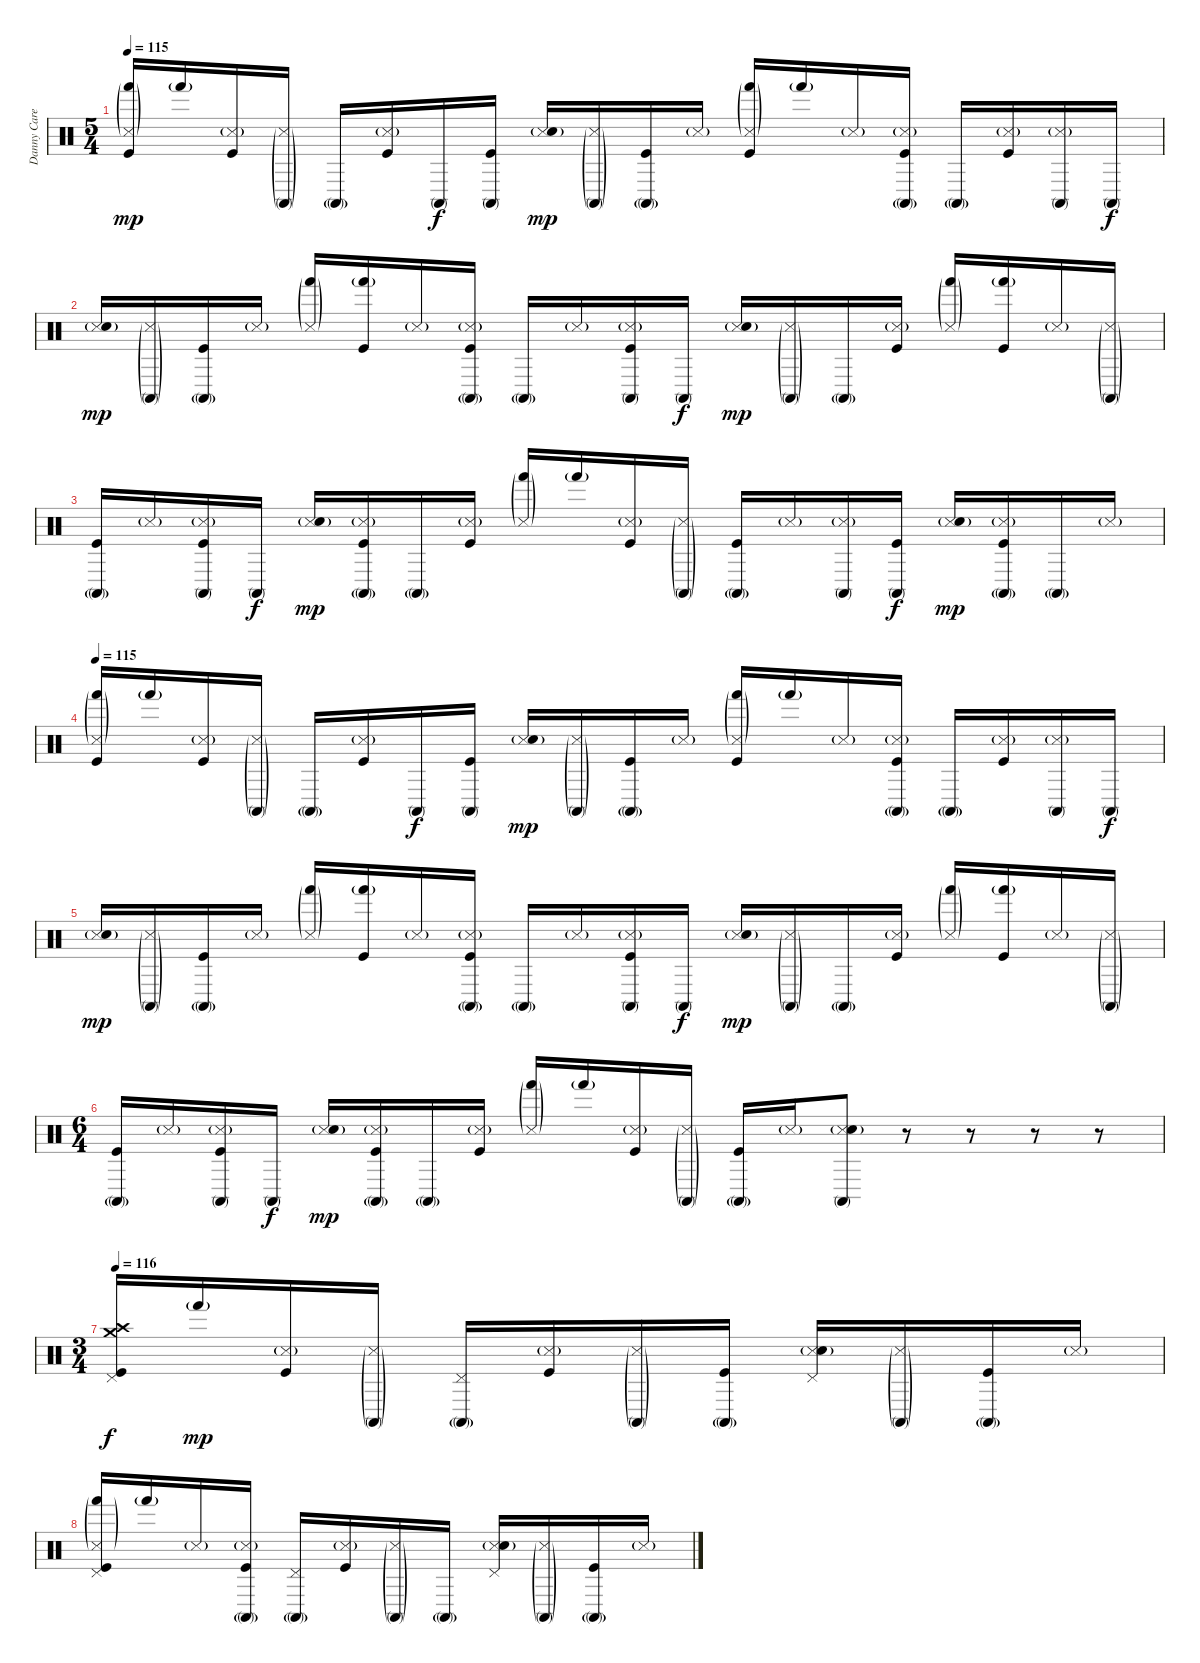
\track ("Danny Carey (drum)" "Danny Care") {instrument percussion}
\staff {score}
\articulation defaults
\ts (5 4)
\tempo 115
\clef neutral
\ks c
("Hand (hit)"{g} "Snare (side stick) 3"{g} "Kick (hit)").16{dy mp} "Hand (hit)"{g}.16 ("Snare (side stick) 3"{g} "Kick (hit)").16 ("Conga high (mute)"{g} "Snare (side stick) 3"{g}).16 "Conga high (mute)"{g}.16 ("Snare (side stick) 3"{g} "Kick (hit)").16 "Conga high (mute)".16{dy f} ("Conga high (mute)" "Kick (hit)").16 ("Snare (side stick) 3"{g} "Snare (hit) 2").16{dy mp} ("Conga high (mute)"{g} "Snare (side stick) 3"{g}).16 ("Conga high (mute)"{g} "Kick (hit)").16 "Snare (side stick) 3"{g}.16 ("Hand (hit)"{g} "Snare (side stick) 3"{g} "Kick (hit)").16 "Hand (hit)"{g}.16 "Snare (side stick) 3"{g}.16 ("Conga high (mute)"{g} "Snare (side stick) 3"{g} "Kick (hit)").16 "Conga high (mute)"{g}.16 ("Snare (side stick) 3"{g} "Kick (hit)").16 ("Conga high (mute)" "Snare (side stick) 3"{g}).16 "Conga high (mute)".16{dy f} |
("Snare (side stick) 3"{g} "Snare (hit) 2").16{dy mp} ("Conga high (mute)"{g} "Snare (side stick) 3"{g}).16 ("Conga high (mute)"{g} "Kick (hit)").16 "Snare (side stick) 3"{g}.16 ("Hand (hit)"{g} "Snare (side stick) 3"{g}).16 ("Hand (hit)"{g} "Kick (hit)").16 "Snare (side stick) 3"{g}.16 ("Conga high (mute)"{g} "Snare (side stick) 3"{g} "Kick (hit)").16 "Conga high (mute)"{g}.16 "Snare (side stick) 3"{g}.16 ("Conga high (mute)" "Snare (side stick) 3"{g} "Kick (hit)").16 "Conga high (mute)".16{dy f} ("Snare (side stick) 3"{g} "Snare (hit) 2").16{dy mp} ("Conga high (mute)"{g} "Snare (side stick) 3"{g}).16 "Conga high (mute)"{g}.16 ("Snare (side stick) 3"{g} "Kick (hit)").16 ("Hand (hit)"{g} "Snare (side stick) 3"{g}).16 ("Hand (hit)"{g} "Kick (hit)").16 "Snare (side stick) 3"{g}.16 ("Conga high (mute)"{g} "Snare (side stick) 3"{g}).16 |
("Conga high (mute)"{g} "Kick (hit)").16 "Snare (side stick) 3"{g}.16 ("Conga high (mute)" "Snare (side stick) 3"{g} "Kick (hit)").16 "Conga high (mute)".16{dy f} ("Snare (side stick) 3"{g} "Snare (hit) 2").16{dy mp} ("Conga high (mute)"{g} "Snare (side stick) 3"{g} "Kick (hit)").16 "Conga high (mute)"{g}.16 ("Snare (side stick) 3"{g} "Kick (hit)").16 ("Hand (hit)"{g} "Snare (side stick) 3"{g}).16 "Hand (hit)"{g}.16 ("Snare (side stick) 3"{g} "Kick (hit)").16 ("Conga high (mute)"{g} "Snare (side stick) 3"{g}).16 ("Conga high (mute)"{g} "Kick (hit)").16 "Snare (side stick) 3"{g}.16 ("Conga high (mute)" "Snare (side stick) 3"{g}).16 ("Conga high (mute)" "Kick (hit)").16{dy f} ("Snare (side stick) 3"{g} "Snare (hit) 2").16{dy mp} ("Conga high (mute)"{g} "Snare (side stick) 3"{g} "Kick (hit)").16 "Conga high (mute)"{g}.16 "Snare (side stick) 3"{g}.16 |
\tempo 115
("Hand (hit)"{g} "Snare (side stick) 3"{g} "Kick (hit)").16 "Hand (hit)"{g}.16 ("Snare (side stick) 3"{g} "Kick (hit)").16 ("Conga high (mute)"{g} "Snare (side stick) 3"{g}).16 "Conga high (mute)"{g}.16 ("Snare (side stick) 3"{g} "Kick (hit)").16 "Conga high (mute)".16{dy f} ("Conga high (mute)" "Kick (hit)").16 ("Snare (side stick) 3"{g} "Snare (hit) 2").16{dy mp} ("Conga high (mute)"{g} "Snare (side stick) 3"{g}).16 ("Conga high (mute)"{g} "Kick (hit)").16 "Snare (side stick) 3"{g}.16 ("Hand (hit)"{g} "Snare (side stick) 3"{g} "Kick (hit)").16 "Hand (hit)"{g}.16 "Snare (side stick) 3"{g}.16 ("Conga high (mute)"{g} "Snare (side stick) 3"{g} "Kick (hit)").16 "Conga high (mute)"{g}.16 ("Snare (side stick) 3"{g} "Kick (hit)").16 ("Conga high (mute)" "Snare (side stick) 3"{g}).16 "Conga high (mute)".16{dy f} |
("Snare (side stick) 3"{g} "Snare (hit) 2").16{dy mp} ("Conga high (mute)"{g} "Snare (side stick) 3"{g}).16 ("Conga high (mute)"{g} "Kick (hit)").16 "Snare (side stick) 3"{g}.16 ("Hand (hit)"{g} "Snare (side stick) 3"{g}).16 ("Hand (hit)"{g} "Kick (hit)").16 "Snare (side stick) 3"{g}.16 ("Conga high (mute)"{g} "Snare (side stick) 3"{g} "Kick (hit)").16 "Conga high (mute)"{g}.16 "Snare (side stick) 3"{g}.16 ("Conga high (mute)" "Snare (side stick) 3"{g} "Kick (hit)").16 "Conga high (mute)".16{dy f} ("Snare (side stick) 3"{g} "Snare (hit) 2").16{dy mp} ("Conga high (mute)"{g} "Snare (side stick) 3"{g}).16 "Conga high (mute)"{g}.16 ("Snare (side stick) 3"{g} "Kick (hit)").16 ("Hand (hit)"{g} "Snare (side stick) 3"{g}).16 ("Hand (hit)"{g} "Kick (hit)").16 "Snare (side stick) 3"{g}.16 ("Conga high (mute)"{g} "Snare (side stick) 3"{g}).16 |
\ts (6 4)
("Conga high (mute)"{g} "Kick (hit)").16 "Snare (side stick) 3"{g}.16 ("Conga high (mute)" "Snare (side stick) 3"{g} "Kick (hit)").16 "Conga high (mute)".16{dy f} ("Snare (side stick) 3"{g} "Snare (hit) 2").16{dy mp} ("Conga high (mute)"{g} "Snare (side stick) 3"{g} "Kick (hit)").16 "Conga high (mute)"{g}.16 ("Snare (side stick) 3"{g} "Kick (hit)").16 ("Hand (hit)"{g} "Snare (side stick) 3"{g}).16 "Hand (hit)"{g}.16 ("Snare (side stick) 3"{g} "Kick (hit)").16 ("Conga high (mute)"{g} "Snare (side stick) 3"{g}).16 ("Conga high (mute)"{g} "Kick (hit)").16 "Snare (side stick) 3"{g}.16 ("Conga high (mute)" "Snare (side stick) 3"{g} "Snare (hit) 2").8 r.8 r.8 r.8 r.8 |
\ts (3 4)
\tempo 116
("Crash medium (hit)" "Pedal Hi-Hat (hit)" "Crash high (hit)" "Kick (hit)").16{dy f} "Hand (hit)"{g}.16{dy mp} ("Snare (side stick) 3"{g} "Kick (hit)").16 ("Conga high (mute)"{g} "Snare (side stick) 3"{g}).16 ("Conga high (mute)"{g} "Pedal Hi-Hat (hit)").16 ("Snare (side stick) 3"{g} "Kick (hit)").16 ("Conga high (mute)"{g} "Snare (side stick) 3"{g}).16 ("Conga high (mute)"{g} "Kick (hit)").16 ("Pedal Hi-Hat (hit)" "Snare (side stick) 3"{g} "Snare (hit) 2").16 ("Conga high (mute)"{g} "Snare (side stick) 3"{g}).16 ("Conga high (mute)"{g} "Kick (hit)").16 "Snare (side stick) 3"{g}.16 |
("Hand (hit)"{g} "Pedal Hi-Hat (hit)" "Snare (side stick) 3"{g} "Kick (hit)").16 "Hand (hit)"{g}.16 "Snare (side stick) 3"{g}.16 ("Conga high (mute)"{g} "Snare (side stick) 3"{g} "Kick (hit)").16 ("Conga high (mute)"{g} "Pedal Hi-Hat (hit)").16 ("Snare (side stick) 3"{g} "Kick (hit)").16 ("Conga high (mute)"{g} "Snare (side stick) 3"{g}).16 "Conga high (mute)"{g}.16 ("Pedal Hi-Hat (hit)" "Snare (side stick) 3"{g} "Snare (hit) 2").16 ("Conga high (mute)"{g} "Snare (side stick) 3"{g}).16 ("Conga high (mute)"{g} "Kick (hit)").16 "Snare (side stick) 3"{g}.16
